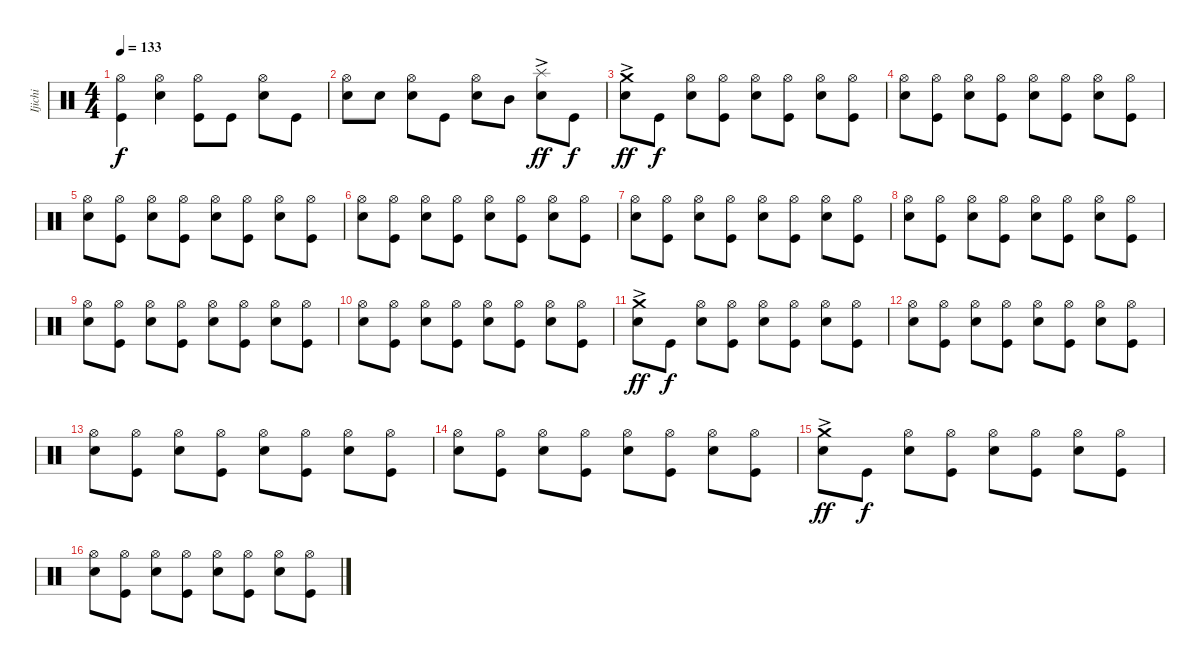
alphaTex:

\track ("Ijichi" "Ijichi") {instrument percussion}
\staff {score}
\articulation defaults
\ts (4 4)
\tempo 133
\clef neutral
\ks c
("Hi-Hat (open)" "Kick (hit)").4{dy f} ("Hi-Hat (open)" "Electric Snare (hit)").4 ("Hi-Hat (open)" "Kick (hit)").8 "Kick (hit)".8 ("Hi-Hat (open)" "Electric Snare (hit)").8 "Kick (hit)".8 |
("Hi-Hat (open)" "Electric Snare (hit)").8 "Electric Snare (hit)".8 ("Hi-Hat (open)" "Electric Snare (hit)").8 "Kick (hit)".8 ("Hi-Hat (open)" "Electric Snare (hit)").8 "Mid Tom (hit)".8 ("Splash (hit)"{ac} "Electric Snare (hit)").8{dy ff} "Kick (hit)".8{dy f} |
("Crash medium (hit)"{ac} "Electric Snare (hit)").8{dy ff} "Kick (hit)".8{dy f} ("Hi-Hat (open)" "Electric Snare (hit)").8 ("Hi-Hat (open)" "Kick (hit)").8 ("Hi-Hat (open)" "Electric Snare (hit)").8 ("Hi-Hat (open)" "Kick (hit)").8 ("Hi-Hat (open)" "Electric Snare (hit)").8 ("Hi-Hat (open)" "Kick (hit)").8 |
("Hi-Hat (open)" "Electric Snare (hit)").8 ("Hi-Hat (open)" "Kick (hit)").8 ("Hi-Hat (open)" "Electric Snare (hit)").8 ("Hi-Hat (open)" "Kick (hit)").8 ("Hi-Hat (open)" "Electric Snare (hit)").8 ("Hi-Hat (open)" "Kick (hit)").8 ("Hi-Hat (open)" "Electric Snare (hit)").8 ("Hi-Hat (open)" "Kick (hit)").8 |
("Hi-Hat (open)" "Electric Snare (hit)").8 ("Hi-Hat (open)" "Kick (hit)").8 ("Hi-Hat (open)" "Electric Snare (hit)").8 ("Hi-Hat (open)" "Kick (hit)").8 ("Hi-Hat (open)" "Electric Snare (hit)").8 ("Hi-Hat (open)" "Kick (hit)").8 ("Hi-Hat (open)" "Electric Snare (hit)").8 ("Hi-Hat (open)" "Kick (hit)").8 |
("Hi-Hat (open)" "Electric Snare (hit)").8 ("Hi-Hat (open)" "Kick (hit)").8 ("Hi-Hat (open)" "Electric Snare (hit)").8 ("Hi-Hat (open)" "Kick (hit)").8 ("Hi-Hat (open)" "Electric Snare (hit)").8 ("Hi-Hat (open)" "Kick (hit)").8 ("Hi-Hat (open)" "Electric Snare (hit)").8 ("Hi-Hat (open)" "Kick (hit)").8 |
("Hi-Hat (open)" "Electric Snare (hit)").8 ("Hi-Hat (open)" "Kick (hit)").8 ("Hi-Hat (open)" "Electric Snare (hit)").8 ("Hi-Hat (open)" "Kick (hit)").8 ("Hi-Hat (open)" "Electric Snare (hit)").8 ("Hi-Hat (open)" "Kick (hit)").8 ("Hi-Hat (open)" "Electric Snare (hit)").8 ("Hi-Hat (open)" "Kick (hit)").8 |
("Hi-Hat (open)" "Electric Snare (hit)").8 ("Hi-Hat (open)" "Kick (hit)").8 ("Hi-Hat (open)" "Electric Snare (hit)").8 ("Hi-Hat (open)" "Kick (hit)").8 ("Hi-Hat (open)" "Electric Snare (hit)").8 ("Hi-Hat (open)" "Kick (hit)").8 ("Hi-Hat (open)" "Electric Snare (hit)").8 ("Hi-Hat (open)" "Kick (hit)").8 |
("Hi-Hat (open)" "Electric Snare (hit)").8 ("Hi-Hat (open)" "Kick (hit)").8 ("Hi-Hat (open)" "Electric Snare (hit)").8 ("Hi-Hat (open)" "Kick (hit)").8 ("Hi-Hat (open)" "Electric Snare (hit)").8 ("Hi-Hat (open)" "Kick (hit)").8 ("Hi-Hat (open)" "Electric Snare (hit)").8 ("Hi-Hat (open)" "Kick (hit)").8 |
("Hi-Hat (open)" "Electric Snare (hit)").8 ("Hi-Hat (open)" "Kick (hit)").8 ("Hi-Hat (open)" "Electric Snare (hit)").8 ("Hi-Hat (open)" "Kick (hit)").8 ("Hi-Hat (open)" "Electric Snare (hit)").8 ("Hi-Hat (open)" "Kick (hit)").8 ("Hi-Hat (open)" "Electric Snare (hit)").8 ("Hi-Hat (open)" "Kick (hit)").8 |
("Crash medium (hit)"{ac} "Electric Snare (hit)").8{dy ff} "Kick (hit)".8{dy f} ("Hi-Hat (open)" "Electric Snare (hit)").8 ("Hi-Hat (open)" "Kick (hit)").8 ("Hi-Hat (open)" "Electric Snare (hit)").8 ("Hi-Hat (open)" "Kick (hit)").8 ("Hi-Hat (open)" "Electric Snare (hit)").8 ("Hi-Hat (open)" "Kick (hit)").8 |
("Hi-Hat (open)" "Electric Snare (hit)").8 ("Hi-Hat (open)" "Kick (hit)").8 ("Hi-Hat (open)" "Electric Snare (hit)").8 ("Hi-Hat (open)" "Kick (hit)").8 ("Hi-Hat (open)" "Electric Snare (hit)").8 ("Hi-Hat (open)" "Kick (hit)").8 ("Hi-Hat (open)" "Electric Snare (hit)").8 ("Hi-Hat (open)" "Kick (hit)").8 |
("Hi-Hat (open)" "Electric Snare (hit)").8 ("Hi-Hat (open)" "Kick (hit)").8 ("Hi-Hat (open)" "Electric Snare (hit)").8 ("Hi-Hat (open)" "Kick (hit)").8 ("Hi-Hat (open)" "Electric Snare (hit)").8 ("Hi-Hat (open)" "Kick (hit)").8 ("Hi-Hat (open)" "Electric Snare (hit)").8 ("Hi-Hat (open)" "Kick (hit)").8 |
("Hi-Hat (open)" "Electric Snare (hit)").8 ("Hi-Hat (open)" "Kick (hit)").8 ("Hi-Hat (open)" "Electric Snare (hit)").8 ("Hi-Hat (open)" "Kick (hit)").8 ("Hi-Hat (open)" "Electric Snare (hit)").8 ("Hi-Hat (open)" "Kick (hit)").8 ("Hi-Hat (open)" "Electric Snare (hit)").8 ("Hi-Hat (open)" "Kick (hit)").8 |
("Crash medium (hit)"{ac} "Electric Snare (hit)").8{dy ff} "Kick (hit)".8{dy f} ("Hi-Hat (open)" "Electric Snare (hit)").8 ("Hi-Hat (open)" "Kick (hit)").8 ("Hi-Hat (open)" "Electric Snare (hit)").8 ("Hi-Hat (open)" "Kick (hit)").8 ("Hi-Hat (open)" "Electric Snare (hit)").8 ("Hi-Hat (open)" "Kick (hit)").8 |
("Hi-Hat (open)" "Electric Snare (hit)").8 ("Hi-Hat (open)" "Kick (hit)").8 ("Hi-Hat (open)" "Electric Snare (hit)").8 ("Hi-Hat (open)" "Kick (hit)").8 ("Hi-Hat (open)" "Electric Snare (hit)").8 ("Hi-Hat (open)" "Kick (hit)").8 ("Hi-Hat (open)" "Electric Snare (hit)").8 ("Hi-Hat (open)" "Kick (hit)").8
